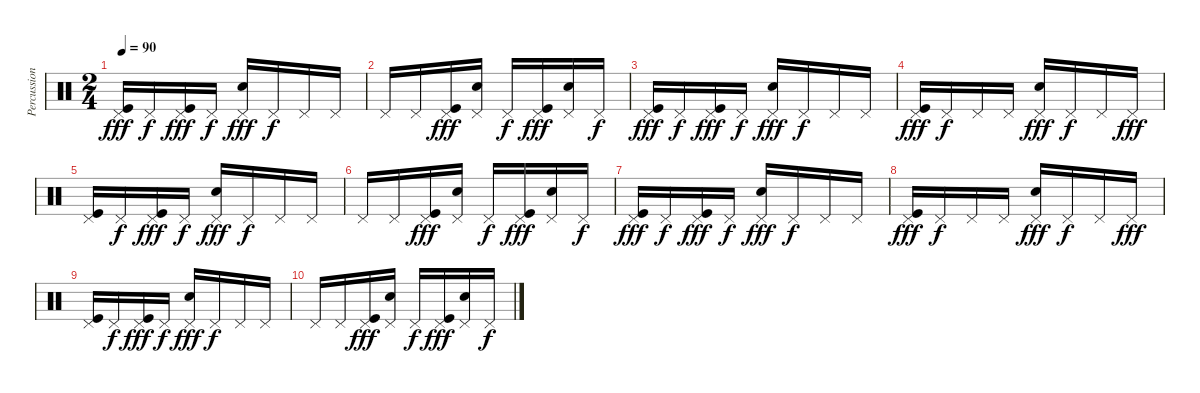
\track ("Percussion" "Percussion") {instrument percussion}
\staff {score}
\articulation defaults
\ts (2 4)
\tempo 90
\clef neutral
\ks c
("Kick (hit)" "Pedal Hi-Hat (hit)").16{dy fff} "Pedal Hi-Hat (hit)".16{dy f} ("Kick (hit)" "Pedal Hi-Hat (hit)").16{dy fff} "Pedal Hi-Hat (hit)".16{dy f} ("Electric Snare (hit)" "Pedal Hi-Hat (hit)").16{dy fff} "Pedal Hi-Hat (hit)".16{dy f} "Pedal Hi-Hat (hit)".16 "Pedal Hi-Hat (hit)".16 |
"Pedal Hi-Hat (hit)".16 "Pedal Hi-Hat (hit)".16 ("Kick (hit)" "Pedal Hi-Hat (hit)").16{dy fff} ("Electric Snare (hit)" "Pedal Hi-Hat (hit)").16 "Pedal Hi-Hat (hit)".16{dy f} ("Kick (hit)" "Pedal Hi-Hat (hit)").16{dy fff} ("Electric Snare (hit)" "Pedal Hi-Hat (hit)").16 "Pedal Hi-Hat (hit)".16{dy f} |
("Kick (hit)" "Pedal Hi-Hat (hit)").16{dy fff} "Pedal Hi-Hat (hit)".16{dy f} ("Kick (hit)" "Pedal Hi-Hat (hit)").16{dy fff} "Pedal Hi-Hat (hit)".16{dy f} ("Electric Snare (hit)" "Pedal Hi-Hat (hit)").16{dy fff} "Pedal Hi-Hat (hit)".16{dy f} "Pedal Hi-Hat (hit)".16 "Pedal Hi-Hat (hit)".16 |
("Kick (hit)" "Pedal Hi-Hat (hit)").16{dy fff} "Pedal Hi-Hat (hit)".16{dy f} "Pedal Hi-Hat (hit)".16 "Pedal Hi-Hat (hit)".16 ("Electric Snare (hit)" "Pedal Hi-Hat (hit)").16{dy fff} "Pedal Hi-Hat (hit)".16{dy f} "Pedal Hi-Hat (hit)".16 "Pedal Hi-Hat (hit)".16{dy fff} |
("Kick (hit)" "Pedal Hi-Hat (hit)").16 "Pedal Hi-Hat (hit)".16{dy f} ("Kick (hit)" "Pedal Hi-Hat (hit)").16{dy fff} "Pedal Hi-Hat (hit)".16{dy f} ("Electric Snare (hit)" "Pedal Hi-Hat (hit)").16{dy fff} "Pedal Hi-Hat (hit)".16{dy f} "Pedal Hi-Hat (hit)".16 "Pedal Hi-Hat (hit)".16 |
"Pedal Hi-Hat (hit)".16 "Pedal Hi-Hat (hit)".16 ("Kick (hit)" "Pedal Hi-Hat (hit)").16{dy fff} ("Electric Snare (hit)" "Pedal Hi-Hat (hit)").16 "Pedal Hi-Hat (hit)".16{dy f} ("Kick (hit)" "Pedal Hi-Hat (hit)").16{dy fff} ("Electric Snare (hit)" "Pedal Hi-Hat (hit)").16 "Pedal Hi-Hat (hit)".16{dy f} |
("Kick (hit)" "Pedal Hi-Hat (hit)").16{dy fff} "Pedal Hi-Hat (hit)".16{dy f} ("Kick (hit)" "Pedal Hi-Hat (hit)").16{dy fff} "Pedal Hi-Hat (hit)".16{dy f} ("Electric Snare (hit)" "Pedal Hi-Hat (hit)").16{dy fff} "Pedal Hi-Hat (hit)".16{dy f} "Pedal Hi-Hat (hit)".16 "Pedal Hi-Hat (hit)".16 |
("Kick (hit)" "Pedal Hi-Hat (hit)").16{dy fff} "Pedal Hi-Hat (hit)".16{dy f} "Pedal Hi-Hat (hit)".16 "Pedal Hi-Hat (hit)".16 ("Electric Snare (hit)" "Pedal Hi-Hat (hit)").16{dy fff} "Pedal Hi-Hat (hit)".16{dy f} "Pedal Hi-Hat (hit)".16 "Pedal Hi-Hat (hit)".16{dy fff} |
("Kick (hit)" "Pedal Hi-Hat (hit)").16 "Pedal Hi-Hat (hit)".16{dy f} ("Kick (hit)" "Pedal Hi-Hat (hit)").16{dy fff} "Pedal Hi-Hat (hit)".16{dy f} ("Electric Snare (hit)" "Pedal Hi-Hat (hit)").16{dy fff} "Pedal Hi-Hat (hit)".16{dy f} "Pedal Hi-Hat (hit)".16 "Pedal Hi-Hat (hit)".16 |
"Pedal Hi-Hat (hit)".16 "Pedal Hi-Hat (hit)".16 ("Kick (hit)" "Pedal Hi-Hat (hit)").16{dy fff} ("Electric Snare (hit)" "Pedal Hi-Hat (hit)").16 "Pedal Hi-Hat (hit)".16{dy f} ("Kick (hit)" "Pedal Hi-Hat (hit)").16{dy fff} ("Electric Snare (hit)" "Pedal Hi-Hat (hit)").16 "Pedal Hi-Hat (hit)".16{dy f}
